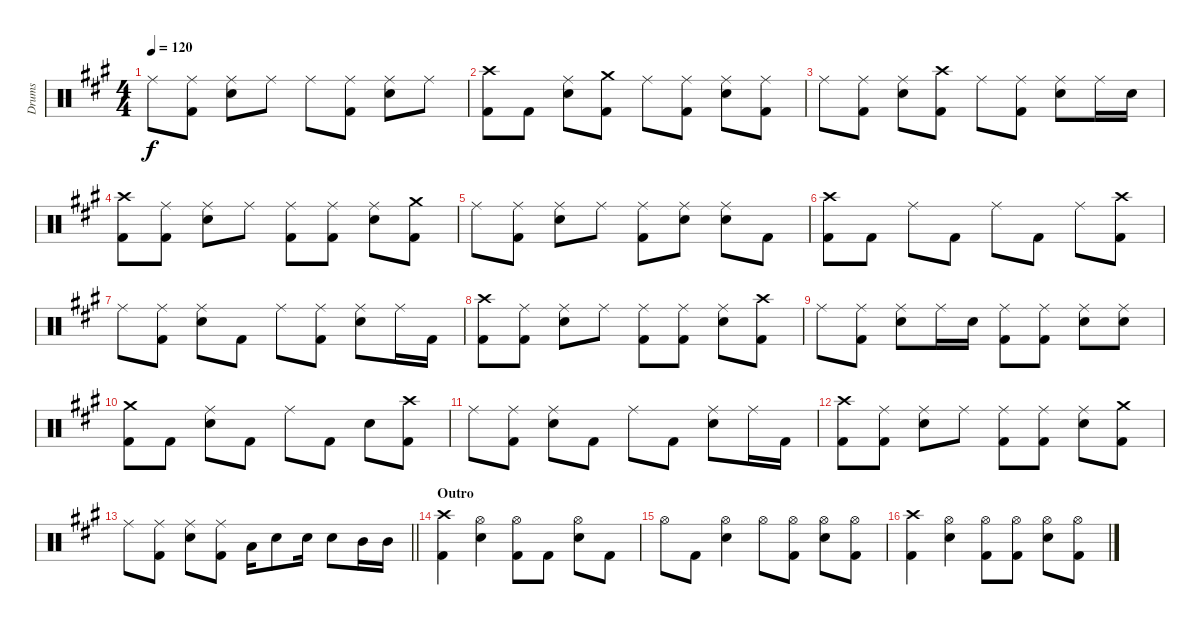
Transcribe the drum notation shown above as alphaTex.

\track ("Drums" "Drums") {instrument percussion}
\staff {score}
\articulation defaults
\ts (4 4)
\tempo 120
\clef neutral
\ks a "Ride (middle)".8{dy f}
("Ride (middle)" "Kick (hit) 2").8 ("Ride (middle)" "Snare (hit) 2").8 "Ride (middle)".8 "Ride (middle)".8 ("Ride (middle)" "Kick (hit) 2").8 ("Ride (middle)" "Snare (hit) 2").8 "Ride (middle)".8 |
("Crash high (hit)" "Kick (hit) 2").8 "Kick (hit) 2".8 ("Ride (middle)" "Snare (hit) 2").8 ("Crash medium (hit)" "Kick (hit) 2").8 "Ride (middle)".8 ("Ride (middle)" "Kick (hit) 2").8 ("Ride (middle)" "Snare (hit) 2").8 ("Ride (middle)" "Kick (hit) 2").8 |
"Ride (middle)".8 ("Ride (middle)" "Kick (hit) 2").8 ("Ride (middle)" "Snare (hit) 2").8 ("Crash high (hit)" "Kick (hit) 2").8 "Ride (middle)".8 ("Ride (middle)" "Kick (hit) 2").8 ("Ride (middle)" "Snare (hit) 2").8 "Ride (middle)".16 "Snare (hit) 2".16 |
("Crash high (hit)" "Kick (hit) 2").8 ("Ride (middle)" "Kick (hit) 2").8 ("Ride (middle)" "Snare (hit) 2").8 "Ride (middle)".8 ("Ride (middle)" "Kick (hit) 2").8 ("Ride (middle)" "Kick (hit) 2").8 ("Ride (middle)" "Snare (hit) 2").8 ("Crash medium (hit)" "Kick (hit) 2").8 |
"Ride (middle)".8 ("Ride (middle)" "Kick (hit) 2").8 ("Ride (middle)" "Snare (hit) 2").8 "Ride (middle)".8 ("Ride (middle)" "Kick (hit) 2").8 ("Ride (middle)" "Snare (hit) 2").8 ("Ride (middle)" "Snare (hit) 2").8 "Kick (hit) 2".8 |
("Crash high (hit)" "Kick (hit) 2").8 "Kick (hit) 2".8 "Ride (middle)".8 "Kick (hit) 2".8 "Ride (middle)".8 "Kick (hit) 2".8 "Ride (middle)".8 ("Crash high (hit)" "Kick (hit) 2").8 |
"Ride (middle)".8 ("Ride (middle)" "Kick (hit) 2").8 ("Ride (middle)" "Snare (hit) 2").8 "Kick (hit) 2".8 "Ride (middle)".8 ("Ride (middle)" "Kick (hit) 2").8 ("Ride (middle)" "Snare (hit) 2").8 "Ride (middle)".16 "Kick (hit) 2".16 |
("Crash high (hit)" "Kick (hit) 2").8 ("Ride (middle)" "Kick (hit) 2").8 ("Ride (middle)" "Snare (hit) 2").8 "Ride (middle)".8 ("Ride (middle)" "Kick (hit) 2").8 ("Ride (middle)" "Kick (hit) 2").8 ("Ride (middle)" "Snare (hit) 2").8 ("Crash high (hit)" "Kick (hit) 2").8 |
"Ride (middle)".8 ("Ride (middle)" "Kick (hit) 2").8 ("Ride (middle)" "Snare (hit) 2").8 "Ride (middle)".16 "Snare (hit) 2".16 ("Ride (middle)" "Kick (hit) 2").8 ("Ride (middle)" "Kick (hit) 2").8 ("Ride (middle)" "Snare (hit) 2").8 ("Ride (middle)" "Snare (hit) 2").8 |
("Crash medium (hit)" "Kick (hit) 2").8 "Kick (hit) 2".8 ("Ride (middle)" "Snare (hit) 2").8 "Kick (hit) 2".8 "Ride (middle)".8 "Kick (hit) 2".8 "Snare (hit) 2".8 ("Crash high (hit)" "Kick (hit) 2").8 |
"Ride (middle)".8 ("Ride (middle)" "Kick (hit) 2").8 ("Ride (middle)" "Snare (hit) 2").8 "Kick (hit) 2".8 "Ride (middle)".8 "Kick (hit) 2".8 ("Ride (middle)" "Snare (hit) 2").8 "Ride (middle)".16 "Kick (hit) 2".16 |
("Crash high (hit)" "Kick (hit) 2").8 ("Ride (middle)" "Kick (hit) 2").8 ("Ride (middle)" "Snare (hit) 2").8 "Ride (middle)".8 ("Ride (middle)" "Kick (hit) 2").8 ("Ride (middle)" "Kick (hit) 2").8 ("Ride (middle)" "Snare (hit) 2").8 ("Crash medium (hit)" "Kick (hit) 2").8 |
\barLineRight lightlight "Ride (middle)".8
("Ride (middle)" "Kick (hit) 2").8 ("Ride (middle)" "Snare (hit) 2").8 ("Ride (middle)" "Kick (hit) 2").8 "Low Tom (hit)".16 "Snare (hit) 2".8 "Snare (hit) 2".16 "Snare (hit) 2".8 "Mid Tom (hit)".16 "Mid Tom (hit)".16 |
\section ("" "Outro")
("Crash high (hit)" "Kick (hit) 2").4 ("Hi-Hat (open)" "Snare (hit) 2").4 ("Hi-Hat (open)" "Kick (hit) 2").8 "Kick (hit) 2".8 ("Hi-Hat (open)" "Snare (hit) 2").8 "Kick (hit) 2".8 |
"Hi-Hat (open)".8 "Kick (hit) 2".8 ("Hi-Hat (open)" "Snare (hit) 2").4 "Hi-Hat (open)".8 ("Hi-Hat (open)" "Kick (hit) 2").8 ("Hi-Hat (open)" "Snare (hit) 2").8 ("Hi-Hat (open)" "Kick (hit) 2").8 |
("Crash high (hit)" "Kick (hit) 2").4 ("Hi-Hat (open)" "Snare (hit) 2").4 ("Hi-Hat (open)" "Kick (hit) 2").8 ("Hi-Hat (open)" "Kick (hit) 2").8 ("Hi-Hat (open)" "Snare (hit) 2").8 ("Hi-Hat (open)" "Kick (hit) 2").8
